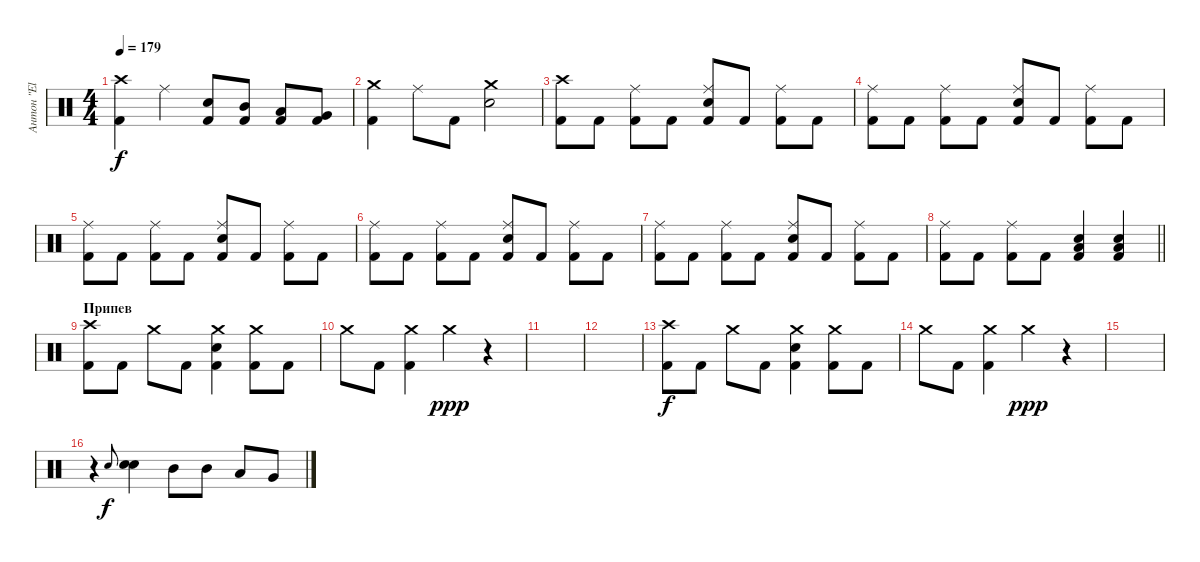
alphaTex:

\track ("Антон \"El Bastardo\" Смольянин" "Антон \"El ") {instrument percussion}
\staff {score}
\articulation defaults
\ts (4 4)
\tempo 179
\clef neutral
\ks c
("Crash high (hit)" "Kick (hit) 2").4{dy f} "Ride (middle)".4 ("Electric Snare (hit)" "Kick (hit) 2").8 ("Mid Tom (hit)" "Kick (hit) 2").8 ("Low Tom (hit)" "Kick (hit) 2").8 ("Very Low Tom (hit)" "Kick (hit) 2").8 |
("Crash medium (hit)" "Kick (hit) 2").4 "Ride (middle)".8 "Kick (hit) 2".8 ("Crash medium (hit)" "Electric Snare (hit)").2 |
("Crash high (hit)" "Kick (hit) 2").8 "Kick (hit) 2".8 ("Ride (middle)" "Kick (hit) 2").8 "Kick (hit) 2".8 ("Ride (middle)" "Electric Snare (hit)" "Kick (hit) 2").8 "Kick (hit) 2".8 ("Ride (middle)" "Kick (hit) 2").8 "Kick (hit) 2".8 |
("Ride (middle)" "Kick (hit) 2").8 "Kick (hit) 2".8 ("Ride (middle)" "Kick (hit) 2").8 "Kick (hit) 2".8 ("Ride (middle)" "Electric Snare (hit)" "Kick (hit) 2").8 "Kick (hit) 2".8 ("Ride (middle)" "Kick (hit) 2").8 "Kick (hit) 2".8 |
("Ride (middle)" "Kick (hit) 2").8 "Kick (hit) 2".8 ("Ride (middle)" "Kick (hit) 2").8 "Kick (hit) 2".8 ("Ride (middle)" "Electric Snare (hit)" "Kick (hit) 2").8 "Kick (hit) 2".8 ("Ride (middle)" "Kick (hit) 2").8 "Kick (hit) 2".8 |
("Ride (middle)" "Kick (hit) 2").8 "Kick (hit) 2".8 ("Ride (middle)" "Kick (hit) 2").8 "Kick (hit) 2".8 ("Ride (middle)" "Electric Snare (hit)" "Kick (hit) 2").8 "Kick (hit) 2".8 ("Ride (middle)" "Kick (hit) 2").8 "Kick (hit) 2".8 |
("Ride (middle)" "Kick (hit) 2").8 "Kick (hit) 2".8 ("Ride (middle)" "Kick (hit) 2").8 "Kick (hit) 2".8 ("Ride (middle)" "Electric Snare (hit)" "Kick (hit) 2").8 "Kick (hit) 2".8 ("Ride (middle)" "Kick (hit) 2").8 "Kick (hit) 2".8 |
\barLineRight lightlight
("Ride (middle)" "Kick (hit) 2").8 "Kick (hit) 2".8 ("Ride (middle)" "Kick (hit) 2").8 "Kick (hit) 2".8 ("Low Tom (hit)" "Electric Snare (hit)" "Kick (hit) 2").4 ("Low Tom (hit)" "Electric Snare (hit)" "Kick (hit) 2").4 |
\section ("" "Припев")
("Crash high (hit)" "Kick (hit) 2").8 "Kick (hit) 2".8 "Crash medium (hit)".8 "Kick (hit) 2".8 ("Crash medium (hit)" "Electric Snare (hit)" "Kick (hit) 2").4 ("Crash medium (hit)" "Kick (hit) 2").8 "Kick (hit) 2".8 |
"Crash medium (hit)".8 "Kick (hit) 2".8 ("Crash medium (hit)" "Kick (hit) 2").4 "Crash medium (hit)".4{dy ppp} r.4 |
|
|
("Crash high (hit)" "Kick (hit) 2").8{dy f} "Kick (hit) 2".8 "Crash medium (hit)".8 "Kick (hit) 2".8 ("Crash medium (hit)" "Electric Snare (hit)" "Kick (hit) 2").4 ("Crash medium (hit)" "Kick (hit) 2").8 "Kick (hit) 2".8 |
"Crash medium (hit)".8 "Kick (hit) 2".8 ("Crash medium (hit)" "Kick (hit) 2").4 "Crash medium (hit)".4{dy ppp} r.4 |
|
r.4 "Electric Snare (hit)".8{gr onbeat dy f} ("Electric Snare (hit)" "Electric Snare (hit)").4 "Mid Tom (hit)".8 "Mid Tom (hit)".8 "Low Tom (hit)".8 "Very Low Tom (hit)".8
